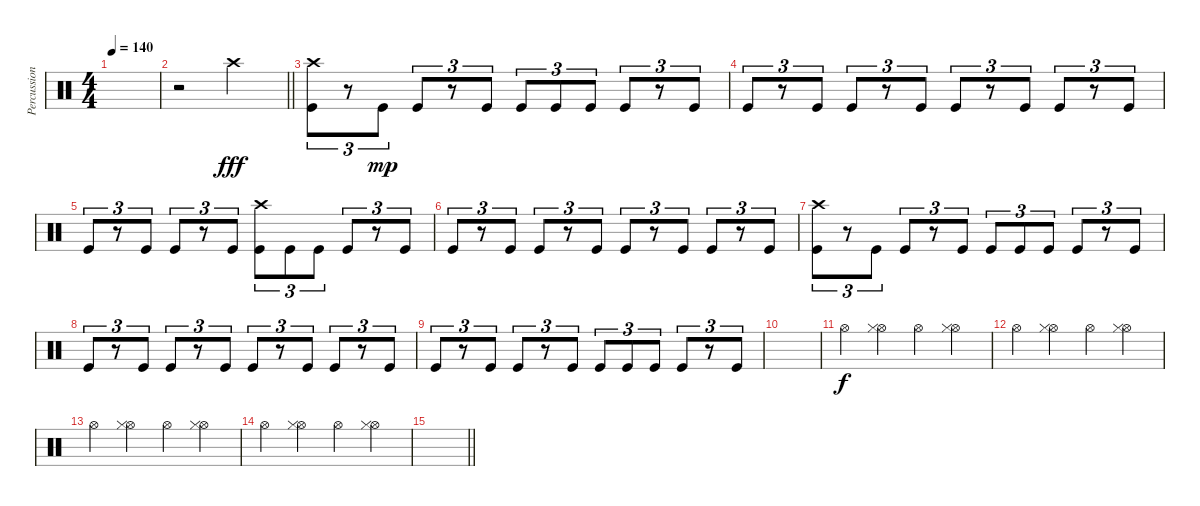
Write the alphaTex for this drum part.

\track ("Percussions" "Percussion") {instrument percussion}
\staff {score}
\articulation defaults
\ts (4 4)
\tempo 140
\clef neutral
\ks c
|
\barLineRight lightlight
r.2 "Crash high (hit)".2{dy fff} |
("Crash high (hit)" "Kick (hit)").8{tu (3 2)} r.8{tu (3 2)} "Kick (hit)".8{tu (3 2) dy mp} "Kick (hit)".8{tu (3 2)} r.8{tu (3 2)} "Kick (hit)".8{tu (3 2)} "Kick (hit)".8{tu (3 2)} "Kick (hit)".8{tu (3 2)} "Kick (hit)".8{tu (3 2)} "Kick (hit)".8{tu (3 2)} r.8{tu (3 2)} "Kick (hit)".8{tu (3 2)} |
"Kick (hit)".8{tu (3 2)} r.8{tu (3 2)} "Kick (hit)".8{tu (3 2)} "Kick (hit)".8{tu (3 2)} r.8{tu (3 2)} "Kick (hit)".8{tu (3 2)} "Kick (hit)".8{tu (3 2)} r.8{tu (3 2)} "Kick (hit)".8{tu (3 2)} "Kick (hit)".8{tu (3 2)} r.8{tu (3 2)} "Kick (hit)".8{tu (3 2)} |
"Kick (hit)".8{tu (3 2)} r.8{tu (3 2)} "Kick (hit)".8{tu (3 2)} "Kick (hit)".8{tu (3 2)} r.8{tu (3 2)} "Kick (hit)".8{tu (3 2)} ("Crash high (hit)" "Kick (hit)").8{tu (3 2)} "Kick (hit)".8{tu (3 2)} "Kick (hit)".8{tu (3 2)} "Kick (hit)".8{tu (3 2)} r.8{tu (3 2)} "Kick (hit)".8{tu (3 2)} |
"Kick (hit)".8{tu (3 2)} r.8{tu (3 2)} "Kick (hit)".8{tu (3 2)} "Kick (hit)".8{tu (3 2)} r.8{tu (3 2)} "Kick (hit)".8{tu (3 2)} "Kick (hit)".8{tu (3 2)} r.8{tu (3 2)} "Kick (hit)".8{tu (3 2)} "Kick (hit)".8{tu (3 2)} r.8{tu (3 2)} "Kick (hit)".8{tu (3 2)} |
("Crash high (hit)" "Kick (hit)").8{tu (3 2)} r.8{tu (3 2)} "Kick (hit)".8{tu (3 2)} "Kick (hit)".8{tu (3 2)} r.8{tu (3 2)} "Kick (hit)".8{tu (3 2)} "Kick (hit)".8{tu (3 2)} "Kick (hit)".8{tu (3 2)} "Kick (hit)".8{tu (3 2)} "Kick (hit)".8{tu (3 2)} r.8{tu (3 2)} "Kick (hit)".8{tu (3 2)} |
"Kick (hit)".8{tu (3 2)} r.8{tu (3 2)} "Kick (hit)".8{tu (3 2)} "Kick (hit)".8{tu (3 2)} r.8{tu (3 2)} "Kick (hit)".8{tu (3 2)} "Kick (hit)".8{tu (3 2)} r.8{tu (3 2)} "Kick (hit)".8{tu (3 2)} "Kick (hit)".8{tu (3 2)} r.8{tu (3 2)} "Kick (hit)".8{tu (3 2)} |
"Kick (hit)".8{tu (3 2)} r.8{tu (3 2)} "Kick (hit)".8{tu (3 2)} "Kick (hit)".8{tu (3 2)} r.8{tu (3 2)} "Kick (hit)".8{tu (3 2)} "Kick (hit)".8{tu (3 2)} "Kick (hit)".8{tu (3 2)} "Kick (hit)".8{tu (3 2)} "Kick (hit)".8{tu (3 2)} r.8{tu (3 2)} "Kick (hit)".8{tu (3 2)} |
|
"Hi-Hat (open)".4{dy f volume 8} ("Hi-Hat (open)" "Hi-Hat (closed)").4 "Hi-Hat (open)".4 ("Hi-Hat (open)" "Hi-Hat (closed)").4 |
"Hi-Hat (open)".4 ("Hi-Hat (open)" "Hi-Hat (closed)").4 "Hi-Hat (open)".4 ("Hi-Hat (open)" "Hi-Hat (closed)").4 |
"Hi-Hat (open)".4 ("Hi-Hat (open)" "Hi-Hat (closed)").4 "Hi-Hat (open)".4 ("Hi-Hat (open)" "Hi-Hat (closed)").4 |
"Hi-Hat (open)".4 ("Hi-Hat (open)" "Hi-Hat (closed)").4 "Hi-Hat (open)".4 ("Hi-Hat (open)" "Hi-Hat (closed)").4 |
\barLineRight lightlight
